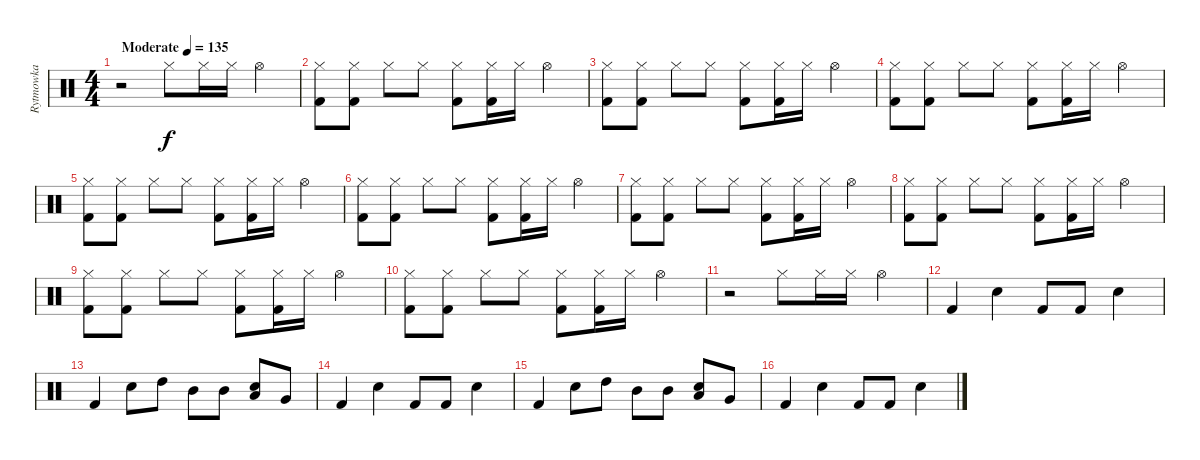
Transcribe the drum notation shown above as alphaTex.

\track ("Rytmowka" "Rytmowka") {instrument percussion}
\staff {score}
\articulation defaults
\ts (4 4)
\tempo (135 "Moderate")
\clef neutral
\ks c
r.2{dy f} "Hi-Hat (closed)".8 "Hi-Hat (closed)".16 "Hi-Hat (closed)".16 "Hi-Hat (open)".4 |
("Hi-Hat (closed)" "Kick (hit) 2").8 ("Hi-Hat (closed)" "Kick (hit) 2").8 "Hi-Hat (closed)".8 "Hi-Hat (closed)".8 ("Hi-Hat (closed)" "Kick (hit) 2").8 ("Hi-Hat (closed)" "Kick (hit) 2").16 "Hi-Hat (closed)".16 "Hi-Hat (open)".4 |
("Hi-Hat (closed)" "Kick (hit) 2").8 ("Hi-Hat (closed)" "Kick (hit) 2").8 "Hi-Hat (closed)".8 "Hi-Hat (closed)".8 ("Hi-Hat (closed)" "Kick (hit) 2").8 ("Hi-Hat (closed)" "Kick (hit) 2").16 "Hi-Hat (closed)".16 "Hi-Hat (open)".4 |
("Hi-Hat (closed)" "Kick (hit) 2").8 ("Hi-Hat (closed)" "Kick (hit) 2").8 "Hi-Hat (closed)".8 "Hi-Hat (closed)".8 ("Hi-Hat (closed)" "Kick (hit) 2").8 ("Hi-Hat (closed)" "Kick (hit) 2").16 "Hi-Hat (closed)".16 "Hi-Hat (open)".4 |
("Hi-Hat (closed)" "Kick (hit) 2").8 ("Hi-Hat (closed)" "Kick (hit) 2").8 "Hi-Hat (closed)".8 "Hi-Hat (closed)".8 ("Hi-Hat (closed)" "Kick (hit) 2").8 ("Hi-Hat (closed)" "Kick (hit) 2").16 "Hi-Hat (closed)".16 "Hi-Hat (open)".4 |
("Hi-Hat (closed)" "Kick (hit) 2").8 ("Hi-Hat (closed)" "Kick (hit) 2").8 "Hi-Hat (closed)".8 "Hi-Hat (closed)".8 ("Hi-Hat (closed)" "Kick (hit) 2").8 ("Hi-Hat (closed)" "Kick (hit) 2").16 "Hi-Hat (closed)".16 "Hi-Hat (open)".4 |
("Hi-Hat (closed)" "Kick (hit) 2").8 ("Hi-Hat (closed)" "Kick (hit) 2").8 "Hi-Hat (closed)".8 "Hi-Hat (closed)".8 ("Hi-Hat (closed)" "Kick (hit) 2").8 ("Hi-Hat (closed)" "Kick (hit) 2").16 "Hi-Hat (closed)".16 "Hi-Hat (open)".4 |
("Hi-Hat (closed)" "Kick (hit) 2").8 ("Hi-Hat (closed)" "Kick (hit) 2").8 "Hi-Hat (closed)".8 "Hi-Hat (closed)".8 ("Hi-Hat (closed)" "Kick (hit) 2").8 ("Hi-Hat (closed)" "Kick (hit) 2").16 "Hi-Hat (closed)".16 "Hi-Hat (open)".4 |
("Hi-Hat (closed)" "Kick (hit) 2").8 ("Hi-Hat (closed)" "Kick (hit) 2").8 "Hi-Hat (closed)".8 "Hi-Hat (closed)".8 ("Hi-Hat (closed)" "Kick (hit) 2").8 ("Hi-Hat (closed)" "Kick (hit) 2").16 "Hi-Hat (closed)".16 "Hi-Hat (open)".4 |
("Hi-Hat (closed)" "Kick (hit) 2").8 ("Hi-Hat (closed)" "Kick (hit) 2").8 "Hi-Hat (closed)".8 "Hi-Hat (closed)".8 ("Hi-Hat (closed)" "Kick (hit) 2").8 ("Hi-Hat (closed)" "Kick (hit) 2").16 "Hi-Hat (closed)".16 "Hi-Hat (open)".4 |
r.2 "Hi-Hat (closed)".8 "Hi-Hat (closed)".16 "Hi-Hat (closed)".16 "Hi-Hat (open)".4 |
"Kick (hit) 2".4 "Snare (hit) 2".4 "Kick (hit) 2".8 "Kick (hit) 2".8 "Snare (hit) 2".4 |
"Kick (hit) 2".4 "Snare (hit) 2".8 "High Tom (hit)".8 "Mid Tom (hit)".8 "Mid Tom (hit)".8 ("Snare (hit) 2" "Low Tom (hit)").8 "Very Low Tom (hit)".8 |
"Kick (hit) 2".4 "Snare (hit) 2".4 "Kick (hit) 2".8 "Kick (hit) 2".8 "Snare (hit) 2".4 |
"Kick (hit) 2".4 "Snare (hit) 2".8 "High Tom (hit)".8 "Mid Tom (hit)".8 "Mid Tom (hit)".8 ("Snare (hit) 2" "Low Tom (hit)").8 "Very Low Tom (hit)".8 |
"Kick (hit) 2".4 "Snare (hit) 2".4 "Kick (hit) 2".8 "Kick (hit) 2".8 "Snare (hit) 2".4
